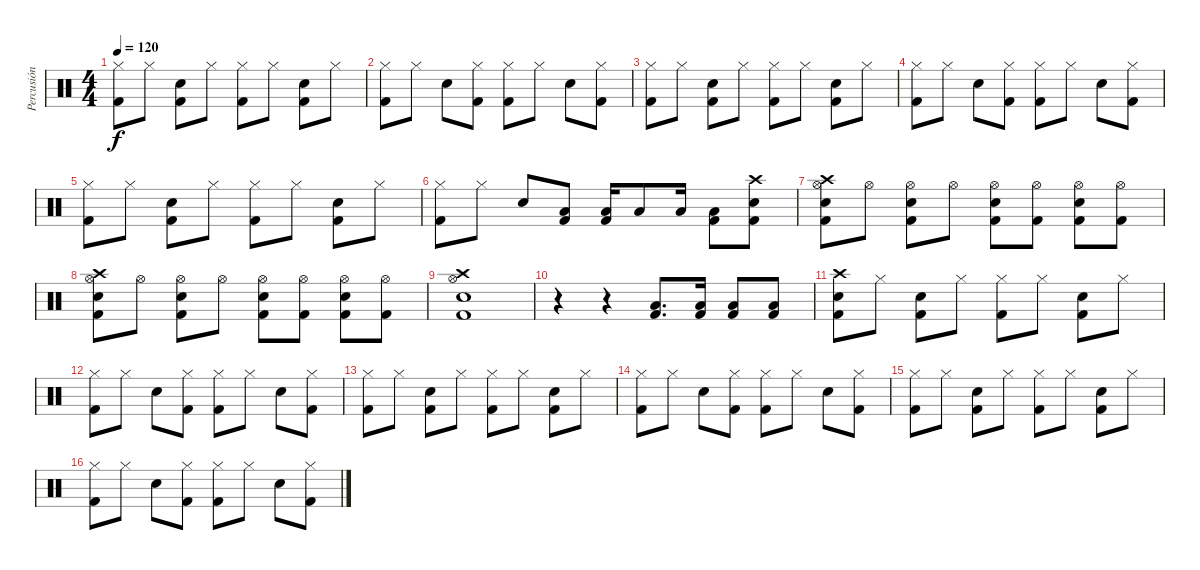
\track ("Percusión" "Percusión") {instrument percussion}
\staff {score}
\articulation defaults
\ts (4 4)
\tempo 120
\clef neutral
\ks c
("Hi-Hat (closed)" "Kick (hit) 2").8{dy f} "Hi-Hat (closed)".8 ("Electric Snare (hit)" "Kick (hit) 2").8 "Hi-Hat (closed)".8 ("Hi-Hat (closed)" "Kick (hit) 2").8 "Hi-Hat (closed)".8 ("Electric Snare (hit)" "Kick (hit) 2").8 "Hi-Hat (closed)".8 |
("Hi-Hat (closed)" "Kick (hit) 2").8 "Hi-Hat (closed)".8 "Electric Snare (hit)".8 ("Hi-Hat (closed)" "Kick (hit) 2").8 ("Hi-Hat (closed)" "Kick (hit) 2").8 "Hi-Hat (closed)".8 "Electric Snare (hit)".8 ("Hi-Hat (closed)" "Kick (hit) 2").8 |
("Hi-Hat (closed)" "Kick (hit) 2").8 "Hi-Hat (closed)".8 ("Electric Snare (hit)" "Kick (hit) 2").8 "Hi-Hat (closed)".8 ("Hi-Hat (closed)" "Kick (hit) 2").8 "Hi-Hat (closed)".8 ("Electric Snare (hit)" "Kick (hit) 2").8 "Hi-Hat (closed)".8 |
("Hi-Hat (closed)" "Kick (hit) 2").8 "Hi-Hat (closed)".8 "Electric Snare (hit)".8 ("Hi-Hat (closed)" "Kick (hit) 2").8 ("Hi-Hat (closed)" "Kick (hit) 2").8 "Hi-Hat (closed)".8 "Electric Snare (hit)".8 ("Hi-Hat (closed)" "Kick (hit) 2").8 |
("Hi-Hat (closed)" "Kick (hit) 2").8 "Hi-Hat (closed)".8 ("Electric Snare (hit)" "Kick (hit) 2").8 "Hi-Hat (closed)".8 ("Hi-Hat (closed)" "Kick (hit) 2").8 "Hi-Hat (closed)".8 ("Electric Snare (hit)" "Kick (hit) 2").8 "Hi-Hat (closed)".8 |
("Hi-Hat (closed)" "Kick (hit) 2").8 "Hi-Hat (closed)".8 "Electric Snare (hit)".8 ("Low Floor Tom (hit)" "Kick (hit) 2").8 ("Low Floor Tom (hit)" "Kick (hit) 2").16 "Low Floor Tom (hit)".8 "Low Floor Tom (hit)".16 ("Low Floor Tom (hit)" "Kick (hit) 2").8 ("Crash high (hit)" "Electric Snare (hit)" "Kick (hit) 2").8 |
("Crash high (hit)" "Hi-Hat (open)" "Electric Snare (hit)" "Kick (hit) 2").8 "Hi-Hat (open)".8 ("Hi-Hat (open)" "Electric Snare (hit)" "Kick (hit) 2").8 "Hi-Hat (open)".8 ("Hi-Hat (open)" "Electric Snare (hit)" "Kick (hit) 2").8 ("Hi-Hat (open)" "Kick (hit) 2").8 ("Hi-Hat (open)" "Electric Snare (hit)" "Kick (hit) 2").8 ("Hi-Hat (open)" "Kick (hit) 2").8 |
("Crash high (hit)" "Hi-Hat (open)" "Electric Snare (hit)" "Kick (hit) 2").8 "Hi-Hat (open)".8 ("Hi-Hat (open)" "Electric Snare (hit)" "Kick (hit) 2").8 "Hi-Hat (open)".8 ("Hi-Hat (open)" "Electric Snare (hit)" "Kick (hit) 2").8 ("Hi-Hat (open)" "Kick (hit) 2").8 ("Hi-Hat (open)" "Electric Snare (hit)" "Kick (hit) 2").8 ("Hi-Hat (open)" "Kick (hit) 2").8 |
("Crash high (hit)" "Hi-Hat (open)" "Electric Snare (hit)" "Kick (hit) 2").1 |
r.4 r.4 ("Low Floor Tom (hit)" "Kick (hit) 2").8{d} ("Low Floor Tom (hit)" "Kick (hit) 2").16 ("Low Floor Tom (hit)" "Kick (hit) 2").8 ("Low Floor Tom (hit)" "Kick (hit) 2").8 |
("Crash high (hit)" "Electric Snare (hit)" "Kick (hit) 2").8 "Hi-Hat (closed)".8 ("Electric Snare (hit)" "Kick (hit) 2").8 "Hi-Hat (closed)".8 ("Hi-Hat (closed)" "Kick (hit) 2").8 "Hi-Hat (closed)".8 ("Electric Snare (hit)" "Kick (hit) 2").8 "Hi-Hat (closed)".8 |
("Hi-Hat (closed)" "Kick (hit) 2").8 "Hi-Hat (closed)".8 "Electric Snare (hit)".8 ("Hi-Hat (closed)" "Kick (hit) 2").8 ("Hi-Hat (closed)" "Kick (hit) 2").8 "Hi-Hat (closed)".8 "Electric Snare (hit)".8 ("Hi-Hat (closed)" "Kick (hit) 2").8 |
("Hi-Hat (closed)" "Kick (hit) 2").8 "Hi-Hat (closed)".8 ("Electric Snare (hit)" "Kick (hit) 2").8 "Hi-Hat (closed)".8 ("Hi-Hat (closed)" "Kick (hit) 2").8 "Hi-Hat (closed)".8 ("Electric Snare (hit)" "Kick (hit) 2").8 "Hi-Hat (closed)".8 |
("Hi-Hat (closed)" "Kick (hit) 2").8 "Hi-Hat (closed)".8 "Electric Snare (hit)".8 ("Hi-Hat (closed)" "Kick (hit) 2").8 ("Hi-Hat (closed)" "Kick (hit) 2").8 "Hi-Hat (closed)".8 "Electric Snare (hit)".8 ("Hi-Hat (closed)" "Kick (hit) 2").8 |
("Hi-Hat (closed)" "Kick (hit) 2").8 "Hi-Hat (closed)".8 ("Electric Snare (hit)" "Kick (hit) 2").8 "Hi-Hat (closed)".8 ("Hi-Hat (closed)" "Kick (hit) 2").8 "Hi-Hat (closed)".8 ("Electric Snare (hit)" "Kick (hit) 2").8 "Hi-Hat (closed)".8 |
("Hi-Hat (closed)" "Kick (hit) 2").8 "Hi-Hat (closed)".8 "Electric Snare (hit)".8 ("Hi-Hat (closed)" "Kick (hit) 2").8 ("Hi-Hat (closed)" "Kick (hit) 2").8 "Hi-Hat (closed)".8 "Electric Snare (hit)".8 ("Hi-Hat (closed)" "Kick (hit) 2").8
